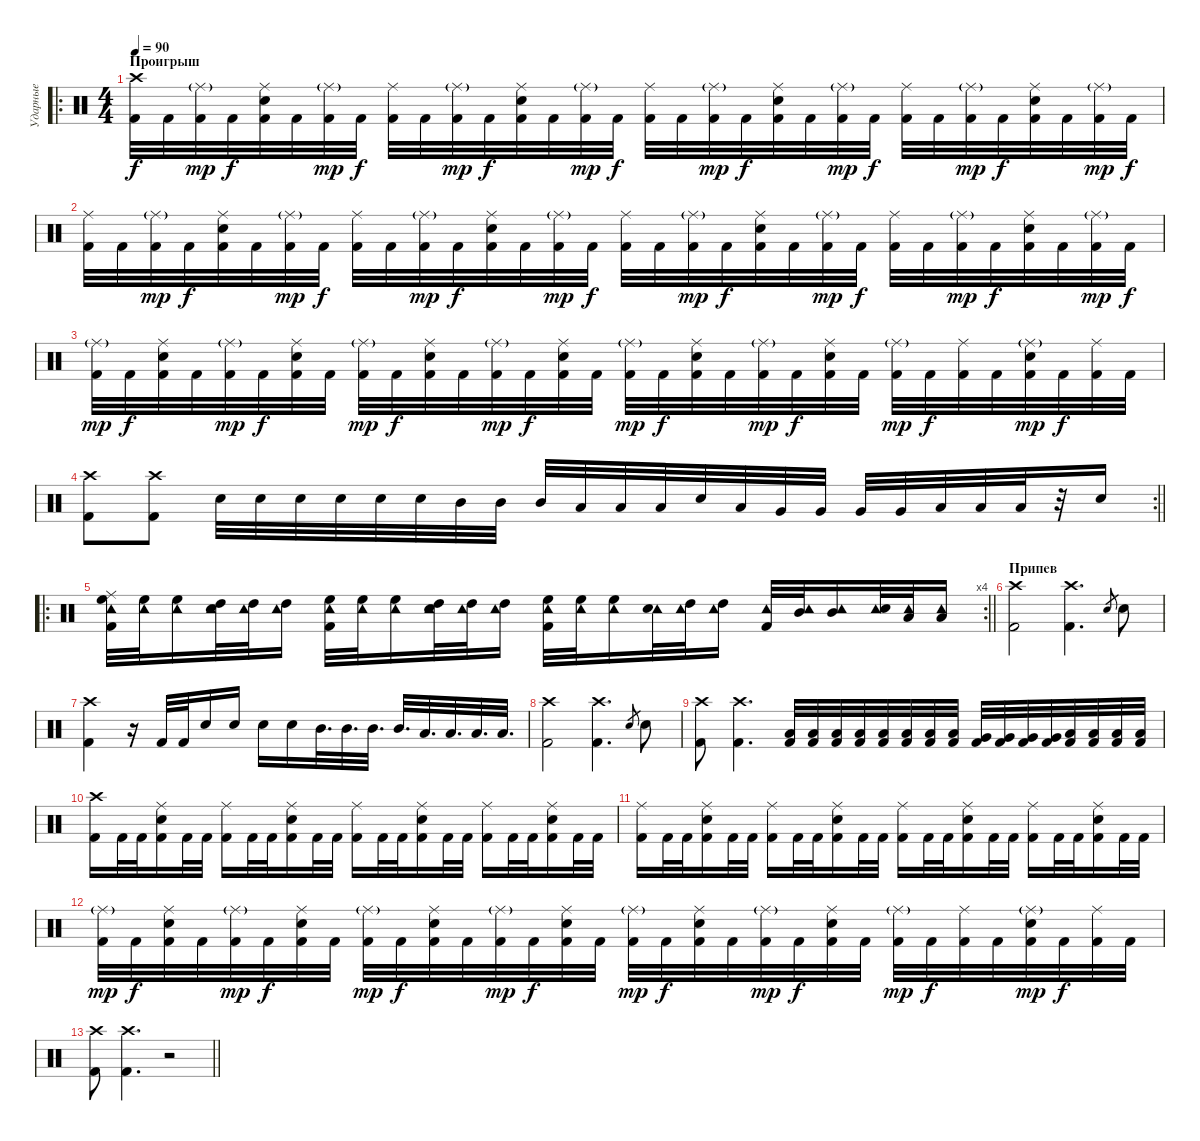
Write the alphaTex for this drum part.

\track ("Ударные" "Ударные") {instrument percussion}
\staff {score}
\articulation defaults
\ro
\ts (4 4)
\section ("" "Проигрыш")
\tempo 90
\clef neutral
\ks c
("Kick (hit) 2" "Crash high (hit)").32{dy f} "Kick (hit) 2".32 ("Kick (hit) 2" "Ride (middle)"{g}).32{dy mp} "Kick (hit) 2".32{dy f} ("Kick (hit) 2" "Electric Snare (hit)" "Ride (middle)").32 "Kick (hit) 2".32 ("Kick (hit) 2" "Ride (middle)"{g}).32{dy mp} "Kick (hit) 2".32{dy f} ("Kick (hit) 2" "Ride (middle)").32 "Kick (hit) 2".32 ("Kick (hit) 2" "Ride (middle)"{g}).32{dy mp} "Kick (hit) 2".32{dy f} ("Kick (hit) 2" "Electric Snare (hit)" "Ride (middle)").32 "Kick (hit) 2".32 ("Kick (hit) 2" "Ride (middle)"{g}).32{dy mp} "Kick (hit) 2".32{dy f} ("Kick (hit) 2" "Ride (middle)").32 "Kick (hit) 2".32 ("Kick (hit) 2" "Ride (middle)"{g}).32{dy mp} "Kick (hit) 2".32{dy f} ("Kick (hit) 2" "Electric Snare (hit)" "Ride (middle)").32 "Kick (hit) 2".32 ("Kick (hit) 2" "Ride (middle)"{g}).32{dy mp} "Kick (hit) 2".32{dy f} ("Kick (hit) 2" "Ride (middle)").32 "Kick (hit) 2".32 ("Kick (hit) 2" "Ride (middle)"{g}).32{dy mp} "Kick (hit) 2".32{dy f} ("Kick (hit) 2" "Electric Snare (hit)" "Ride (middle)").32 "Kick (hit) 2".32 ("Kick (hit) 2" "Ride (middle)"{g}).32{dy mp} "Kick (hit) 2".32{dy f} |
("Kick (hit) 2" "Ride (middle)").32 "Kick (hit) 2".32 ("Kick (hit) 2" "Ride (middle)"{g}).32{dy mp} "Kick (hit) 2".32{dy f} ("Kick (hit) 2" "Electric Snare (hit)" "Ride (middle)").32 "Kick (hit) 2".32 ("Kick (hit) 2" "Ride (middle)"{g}).32{dy mp} "Kick (hit) 2".32{dy f} ("Kick (hit) 2" "Ride (middle)").32 "Kick (hit) 2".32 ("Kick (hit) 2" "Ride (middle)"{g}).32{dy mp} "Kick (hit) 2".32{dy f} ("Kick (hit) 2" "Electric Snare (hit)" "Ride (middle)").32 "Kick (hit) 2".32 ("Kick (hit) 2" "Ride (middle)"{g}).32{dy mp} "Kick (hit) 2".32{dy f} ("Kick (hit) 2" "Ride (middle)").32 "Kick (hit) 2".32 ("Kick (hit) 2" "Ride (middle)"{g}).32{dy mp} "Kick (hit) 2".32{dy f} ("Kick (hit) 2" "Electric Snare (hit)" "Ride (middle)").32 "Kick (hit) 2".32 ("Kick (hit) 2" "Ride (middle)"{g}).32{dy mp} "Kick (hit) 2".32{dy f} ("Kick (hit) 2" "Ride (middle)").32 "Kick (hit) 2".32 ("Kick (hit) 2" "Ride (middle)"{g}).32{dy mp} "Kick (hit) 2".32{dy f} ("Kick (hit) 2" "Electric Snare (hit)" "Ride (middle)").32 "Kick (hit) 2".32 ("Kick (hit) 2" "Ride (middle)"{g}).32{dy mp} "Kick (hit) 2".32{dy f} |
("Kick (hit) 2" "Ride (middle)"{g}).32{dy mp} "Kick (hit) 2".32{dy f} ("Kick (hit) 2" "Electric Snare (hit)" "Ride (middle)").32 "Kick (hit) 2".32 ("Kick (hit) 2" "Ride (middle)"{g}).32{dy mp} "Kick (hit) 2".32{dy f} ("Kick (hit) 2" "Electric Snare (hit)" "Ride (middle)").32 "Kick (hit) 2".32 ("Kick (hit) 2" "Ride (middle)"{g}).32{dy mp} "Kick (hit) 2".32{dy f} ("Kick (hit) 2" "Electric Snare (hit)" "Ride (middle)").32 "Kick (hit) 2".32 ("Kick (hit) 2" "Ride (middle)"{g}).32{dy mp} "Kick (hit) 2".32{dy f} ("Kick (hit) 2" "Electric Snare (hit)" "Ride (middle)").32 "Kick (hit) 2".32 ("Kick (hit) 2" "Ride (middle)"{g}).32{dy mp} "Kick (hit) 2".32{dy f} ("Kick (hit) 2" "Electric Snare (hit)" "Ride (middle)").32 "Kick (hit) 2".32 ("Kick (hit) 2" "Ride (middle)"{g}).32{dy mp} "Kick (hit) 2".32{dy f} ("Kick (hit) 2" "Electric Snare (hit)" "Ride (middle)").32 "Kick (hit) 2".32 ("Kick (hit) 2" "Ride (middle)"{g}).32{dy mp} "Kick (hit) 2".32{dy f} ("Kick (hit) 2" "Ride (middle)").32 "Kick (hit) 2".32 ("Kick (hit) 2" "Electric Snare (hit)" "Ride (middle)"{g}).32{dy mp} "Kick (hit) 2".32{dy f} ("Kick (hit) 2" "Ride (middle)").32 "Kick (hit) 2".32 |
\rc 2
\barLineRight lightlight
("Kick (hit) 2" "Crash high (hit)").8 ("Kick (hit) 2" "Crash high (hit)").8 "Electric Snare (hit)".32 "Electric Snare (hit)".32 "Electric Snare (hit)".32 "Electric Snare (hit)".32 "Electric Snare (hit)".32 "Electric Snare (hit)".32 "Mid Tom (hit)".32 "Mid Tom (hit)".32 "Mid Tom (hit)".32 "Low Tom (hit)".32 "Low Tom (hit)".32 "Low Tom (hit)".32 "Electric Snare (hit)".32 "Low Tom (hit)".32 "Very Low Tom (hit)".32 "Very Low Tom (hit)".32 "Very Low Tom (hit)".32 "Very Low Tom (hit)".32 "Low Floor Tom (hit)".32 "Low Floor Tom (hit)".32 "Low Floor Tom (hit)".32 r.32 "Electric Snare (hit)".16 |
\ro
\rc 4
\barLineRight lightlight
("Tambourine (hit)" "Kick (hit) 2" "High Floor Tom (hit)" "Ride (middle)").32 ("Tambourine (hit)" "High Floor Tom (hit)").32 ("Tambourine (hit)" "High Floor Tom (hit)").16 ("Tambourine (hit)" "Electric Snare (hit)" "High Tom (hit)").32 ("Tambourine (hit)" "High Tom (hit)").32 ("Tambourine (hit)" "High Tom (hit)").16 ("Tambourine (hit)" "Kick (hit) 2" "High Floor Tom (hit)").32 ("Tambourine (hit)" "High Floor Tom (hit)").32 ("Tambourine (hit)" "High Floor Tom (hit)").16 ("Tambourine (hit)" "Electric Snare (hit)" "High Tom (hit)").32 ("Tambourine (hit)" "High Tom (hit)").32 ("Tambourine (hit)" "High Tom (hit)").16 ("Tambourine (hit)" "Kick (hit) 2" "High Floor Tom (hit)").32 ("Tambourine (hit)" "High Floor Tom (hit)").32 ("Tambourine (hit)" "High Floor Tom (hit)").16 ("Tambourine (hit)" "Electric Snare (hit)").32 ("Tambourine (hit)" "High Tom (hit)").32 ("Tambourine (hit)" "High Tom (hit)").16 ("Tambourine (hit)" "Kick (hit) 2").32 ("Tambourine (hit)" "Mid Tom (hit)").32 ("Tambourine (hit)" "Mid Tom (hit)").16 ("Tambourine (hit)" "Electric Snare (hit)").32 ("Tambourine (hit)" "Low Tom (hit)").32 ("Tambourine (hit)" "Low Tom (hit)").16 |
\section ("" "Припев")
("Kick (hit) 2" "Crash high (hit)").2 ("Kick (hit) 2" "Crash high (hit)").4{d} "Electric Snare (hit)".8{gr} "Electric Snare (hit)".8 |
("Kick (hit) 2" "Crash high (hit)").4 r.16 "Kick (hit) 2".32 "Kick (hit) 2".32 "Electric Snare (hit)".16 "Electric Snare (hit)".16 "Electric Snare (hit)".16 "Electric Snare (hit)".16 "Mid Tom (hit)".32{d} "Mid Tom (hit)".32{d} "Mid Tom (hit)".32{d} "Mid Tom (hit)".32{d} "Low Tom (hit)".32{d} "Low Tom (hit)".32{d} "Low Tom (hit)".32{d} "Low Tom (hit)".32{d} |
("Kick (hit) 2" "Crash high (hit)").2 ("Kick (hit) 2" "Crash high (hit)").4{d} "Electric Snare (hit)".8{gr} "Electric Snare (hit)".8 |
("Kick (hit) 2" "Crash high (hit)").8 ("Kick (hit) 2" "Crash high (hit)").4{d} ("Low Tom (hit)" "Kick (hit) 2").32 ("Low Tom (hit)" "Kick (hit) 2").32 ("Low Tom (hit)" "Kick (hit) 2").32 ("Low Tom (hit)" "Kick (hit) 2").32 ("Low Tom (hit)" "Kick (hit) 2").32 ("Low Tom (hit)" "Kick (hit) 2").32 ("Low Tom (hit)" "Kick (hit) 2").32 ("Low Tom (hit)" "Kick (hit) 2").32 ("Very Low Tom (hit)" "Kick (hit) 2").32 ("Very Low Tom (hit)" "Kick (hit) 2").32 ("Very Low Tom (hit)" "Kick (hit) 2").32 ("Very Low Tom (hit)" "Kick (hit) 2").32 ("Low Floor Tom (hit)" "Kick (hit) 2").32 ("Low Floor Tom (hit)" "Kick (hit) 2").32 ("Low Floor Tom (hit)" "Kick (hit) 2").32 ("Low Floor Tom (hit)" "Kick (hit) 2").32 |
("Kick (hit) 2" "Crash high (hit)").16 "Kick (hit) 2".32 "Kick (hit) 2".32 ("Kick (hit) 2" "Electric Snare (hit)" "Ride (middle)").16 "Kick (hit) 2".32 "Kick (hit) 2".32 ("Kick (hit) 2" "Ride (middle)").16 "Kick (hit) 2".32 "Kick (hit) 2".32 ("Kick (hit) 2" "Electric Snare (hit)" "Ride (middle)").16 "Kick (hit) 2".32 "Kick (hit) 2".32 ("Kick (hit) 2" "Ride (middle)").16 "Kick (hit) 2".32 "Kick (hit) 2".32 ("Kick (hit) 2" "Electric Snare (hit)" "Ride (middle)").16 "Kick (hit) 2".32 "Kick (hit) 2".32 ("Kick (hit) 2" "Ride (middle)").16 "Kick (hit) 2".32 "Kick (hit) 2".32 ("Kick (hit) 2" "Electric Snare (hit)" "Ride (middle)").16 "Kick (hit) 2".32 "Kick (hit) 2".32 |
("Kick (hit) 2" "Ride (middle)").16 "Kick (hit) 2".32 "Kick (hit) 2".32 ("Kick (hit) 2" "Electric Snare (hit)" "Ride (middle)").16 "Kick (hit) 2".32 "Kick (hit) 2".32 ("Kick (hit) 2" "Ride (middle)").16 "Kick (hit) 2".32 "Kick (hit) 2".32 ("Kick (hit) 2" "Electric Snare (hit)" "Ride (middle)").16 "Kick (hit) 2".32 "Kick (hit) 2".32 ("Kick (hit) 2" "Ride (middle)").16 "Kick (hit) 2".32 "Kick (hit) 2".32 ("Kick (hit) 2" "Electric Snare (hit)" "Ride (middle)").16 "Kick (hit) 2".32 "Kick (hit) 2".32 ("Kick (hit) 2" "Ride (middle)").16 "Kick (hit) 2".32 "Kick (hit) 2".32 ("Kick (hit) 2" "Electric Snare (hit)" "Ride (middle)").16 "Kick (hit) 2".32 "Kick (hit) 2".32 |
("Kick (hit) 2" "Ride (middle)"{g}).32{dy mp} "Kick (hit) 2".32{dy f} ("Kick (hit) 2" "Electric Snare (hit)" "Ride (middle)").32 "Kick (hit) 2".32 ("Kick (hit) 2" "Ride (middle)"{g}).32{dy mp} "Kick (hit) 2".32{dy f} ("Kick (hit) 2" "Electric Snare (hit)" "Ride (middle)").32 "Kick (hit) 2".32 ("Kick (hit) 2" "Ride (middle)"{g}).32{dy mp} "Kick (hit) 2".32{dy f} ("Kick (hit) 2" "Electric Snare (hit)" "Ride (middle)").32 "Kick (hit) 2".32 ("Kick (hit) 2" "Ride (middle)"{g}).32{dy mp} "Kick (hit) 2".32{dy f} ("Kick (hit) 2" "Electric Snare (hit)" "Ride (middle)").32 "Kick (hit) 2".32 ("Kick (hit) 2" "Ride (middle)"{g}).32{dy mp} "Kick (hit) 2".32{dy f} ("Kick (hit) 2" "Electric Snare (hit)" "Ride (middle)").32 "Kick (hit) 2".32 ("Kick (hit) 2" "Ride (middle)"{g}).32{dy mp} "Kick (hit) 2".32{dy f} ("Kick (hit) 2" "Electric Snare (hit)" "Ride (middle)").32 "Kick (hit) 2".32 ("Kick (hit) 2" "Ride (middle)"{g}).32{dy mp} "Kick (hit) 2".32{dy f} ("Kick (hit) 2" "Ride (middle)").32 "Kick (hit) 2".32 ("Kick (hit) 2" "Electric Snare (hit)" "Ride (middle)"{g}).32{dy mp} "Kick (hit) 2".32{dy f} ("Kick (hit) 2" "Ride (middle)").32 "Kick (hit) 2".32 |
\barLineRight lightlight
("Kick (hit) 2" "Crash high (hit)").8 ("Kick (hit) 2" "Crash high (hit)").4{d} r.2
